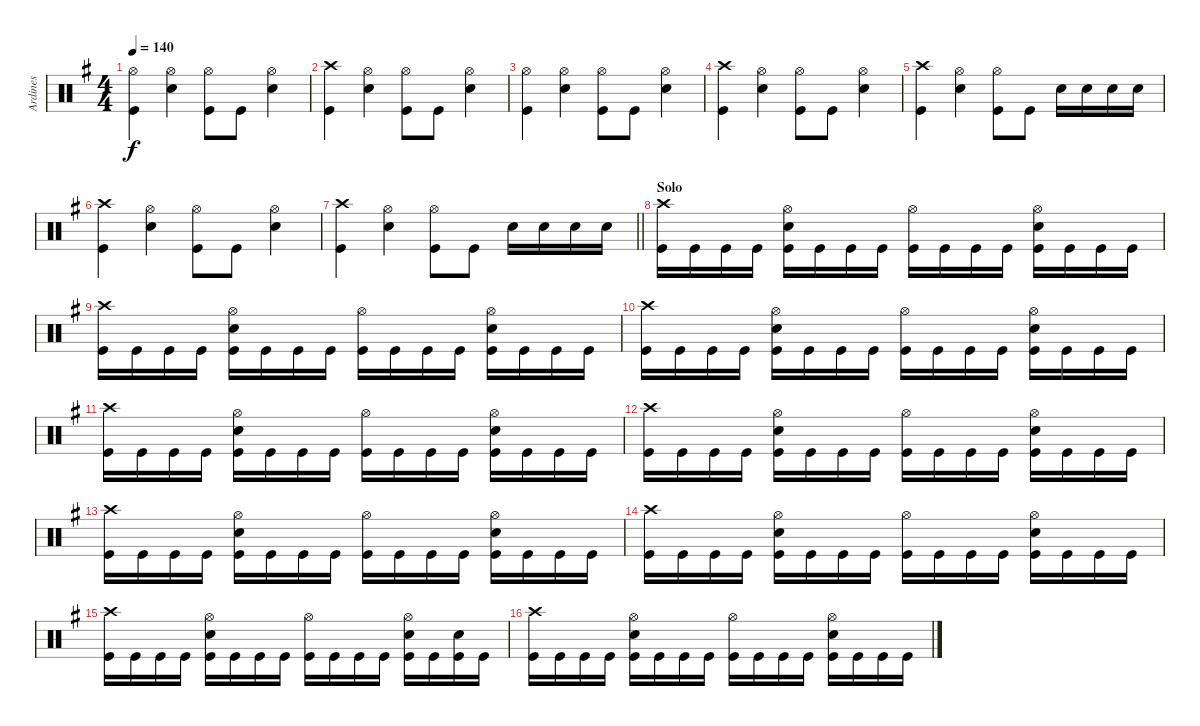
\track ("Ardines" "Ardines") {instrument percussion}
\staff {score}
\articulation defaults
\ts (4 4)
\tempo 140
\clef neutral
\ks g
("Hi-Hat (open)" "Kick (hit)").4{dy f} ("Hi-Hat (open)" "Electric Snare (hit)").4 ("Hi-Hat (open)" "Kick (hit)").8 "Kick (hit)".8 ("Hi-Hat (open)" "Electric Snare (hit)").4 |
("Crash high (hit)" "Kick (hit)").4 ("Hi-Hat (open)" "Electric Snare (hit)").4 ("Hi-Hat (open)" "Kick (hit)").8 "Kick (hit)".8 ("Hi-Hat (open)" "Electric Snare (hit)").4 |
("Hi-Hat (open)" "Kick (hit)").4 ("Hi-Hat (open)" "Electric Snare (hit)").4 ("Hi-Hat (open)" "Kick (hit)").8 "Kick (hit)".8 ("Hi-Hat (open)" "Electric Snare (hit)").4 |
("Crash high (hit)" "Kick (hit)").4 ("Hi-Hat (open)" "Electric Snare (hit)").4 ("Hi-Hat (open)" "Kick (hit)").8 "Kick (hit)".8 ("Hi-Hat (open)" "Electric Snare (hit)").4 |
("Crash high (hit)" "Kick (hit)").4 ("Hi-Hat (open)" "Electric Snare (hit)").4 ("Hi-Hat (open)" "Kick (hit)").8 "Kick (hit)".8 "Electric Snare (hit)".16 "Electric Snare (hit)".16 "Electric Snare (hit)".16 "Electric Snare (hit)".16 |
("Crash high (hit)" "Kick (hit)").4 ("Hi-Hat (open)" "Electric Snare (hit)").4 ("Hi-Hat (open)" "Kick (hit)").8 "Kick (hit)".8 ("Hi-Hat (open)" "Electric Snare (hit)").4 |
\barLineRight lightlight
("Crash high (hit)" "Kick (hit)").4 ("Hi-Hat (open)" "Electric Snare (hit)").4 ("Hi-Hat (open)" "Kick (hit)").8 "Kick (hit)".8 "Electric Snare (hit)".16 "Electric Snare (hit)".16 "Electric Snare (hit)".16 "Electric Snare (hit)".16 |
\section ("" "Solo")
("Crash high (hit)" "Kick (hit)").16 "Kick (hit)".16 "Kick (hit)".16 "Kick (hit)".16 ("Hi-Hat (open)" "Electric Snare (hit)" "Kick (hit)").16 "Kick (hit)".16 "Kick (hit)".16 "Kick (hit)".16 ("Hi-Hat (open)" "Kick (hit)").16 "Kick (hit)".16 "Kick (hit)".16 "Kick (hit)".16 ("Hi-Hat (open)" "Electric Snare (hit)" "Kick (hit)").16 "Kick (hit)".16 "Kick (hit)".16 "Kick (hit)".16 |
("Crash high (hit)" "Kick (hit)").16 "Kick (hit)".16 "Kick (hit)".16 "Kick (hit)".16 ("Hi-Hat (open)" "Electric Snare (hit)" "Kick (hit)").16 "Kick (hit)".16 "Kick (hit)".16 "Kick (hit)".16 ("Hi-Hat (open)" "Kick (hit)").16 "Kick (hit)".16 "Kick (hit)".16 "Kick (hit)".16 ("Hi-Hat (open)" "Electric Snare (hit)" "Kick (hit)").16 "Kick (hit)".16 "Kick (hit)".16 "Kick (hit)".16 |
("Crash high (hit)" "Kick (hit)").16 "Kick (hit)".16 "Kick (hit)".16 "Kick (hit)".16 ("Hi-Hat (open)" "Electric Snare (hit)" "Kick (hit)").16 "Kick (hit)".16 "Kick (hit)".16 "Kick (hit)".16 ("Hi-Hat (open)" "Kick (hit)").16 "Kick (hit)".16 "Kick (hit)".16 "Kick (hit)".16 ("Hi-Hat (open)" "Electric Snare (hit)" "Kick (hit)").16 "Kick (hit)".16 "Kick (hit)".16 "Kick (hit)".16 |
("Crash high (hit)" "Kick (hit)").16 "Kick (hit)".16 "Kick (hit)".16 "Kick (hit)".16 ("Hi-Hat (open)" "Electric Snare (hit)" "Kick (hit)").16 "Kick (hit)".16 "Kick (hit)".16 "Kick (hit)".16 ("Hi-Hat (open)" "Kick (hit)").16 "Kick (hit)".16 "Kick (hit)".16 "Kick (hit)".16 ("Hi-Hat (open)" "Electric Snare (hit)" "Kick (hit)").16 "Kick (hit)".16 "Kick (hit)".16 "Kick (hit)".16 |
("Crash high (hit)" "Kick (hit)").16 "Kick (hit)".16 "Kick (hit)".16 "Kick (hit)".16 ("Hi-Hat (open)" "Electric Snare (hit)" "Kick (hit)").16 "Kick (hit)".16 "Kick (hit)".16 "Kick (hit)".16 ("Hi-Hat (open)" "Kick (hit)").16 "Kick (hit)".16 "Kick (hit)".16 "Kick (hit)".16 ("Hi-Hat (open)" "Electric Snare (hit)" "Kick (hit)").16 "Kick (hit)".16 "Kick (hit)".16 "Kick (hit)".16 |
("Crash high (hit)" "Kick (hit)").16 "Kick (hit)".16 "Kick (hit)".16 "Kick (hit)".16 ("Hi-Hat (open)" "Electric Snare (hit)" "Kick (hit)").16 "Kick (hit)".16 "Kick (hit)".16 "Kick (hit)".16 ("Hi-Hat (open)" "Kick (hit)").16 "Kick (hit)".16 "Kick (hit)".16 "Kick (hit)".16 ("Hi-Hat (open)" "Electric Snare (hit)" "Kick (hit)").16 "Kick (hit)".16 "Kick (hit)".16 "Kick (hit)".16 |
("Crash high (hit)" "Kick (hit)").16 "Kick (hit)".16 "Kick (hit)".16 "Kick (hit)".16 ("Hi-Hat (open)" "Electric Snare (hit)" "Kick (hit)").16 "Kick (hit)".16 "Kick (hit)".16 "Kick (hit)".16 ("Hi-Hat (open)" "Kick (hit)").16 "Kick (hit)".16 "Kick (hit)".16 "Kick (hit)".16 ("Hi-Hat (open)" "Electric Snare (hit)" "Kick (hit)").16 "Kick (hit)".16 "Kick (hit)".16 "Kick (hit)".16 |
("Crash high (hit)" "Kick (hit)").16 "Kick (hit)".16 "Kick (hit)".16 "Kick (hit)".16 ("Hi-Hat (open)" "Electric Snare (hit)" "Kick (hit)").16 "Kick (hit)".16 "Kick (hit)".16 "Kick (hit)".16 ("Hi-Hat (open)" "Kick (hit)").16 "Kick (hit)".16 "Kick (hit)".16 "Kick (hit)".16 ("Hi-Hat (open)" "Electric Snare (hit)" "Kick (hit)").16 "Kick (hit)".16 ("Electric Snare (hit)" "Kick (hit)").16 "Kick (hit)".16 |
("Crash high (hit)" "Kick (hit)").16 "Kick (hit)".16 "Kick (hit)".16 "Kick (hit)".16 ("Hi-Hat (open)" "Electric Snare (hit)" "Kick (hit)").16 "Kick (hit)".16 "Kick (hit)".16 "Kick (hit)".16 ("Hi-Hat (open)" "Kick (hit)").16 "Kick (hit)".16 "Kick (hit)".16 "Kick (hit)".16 ("Hi-Hat (open)" "Electric Snare (hit)" "Kick (hit)").16 "Kick (hit)".16 "Kick (hit)".16 "Kick (hit)".16
